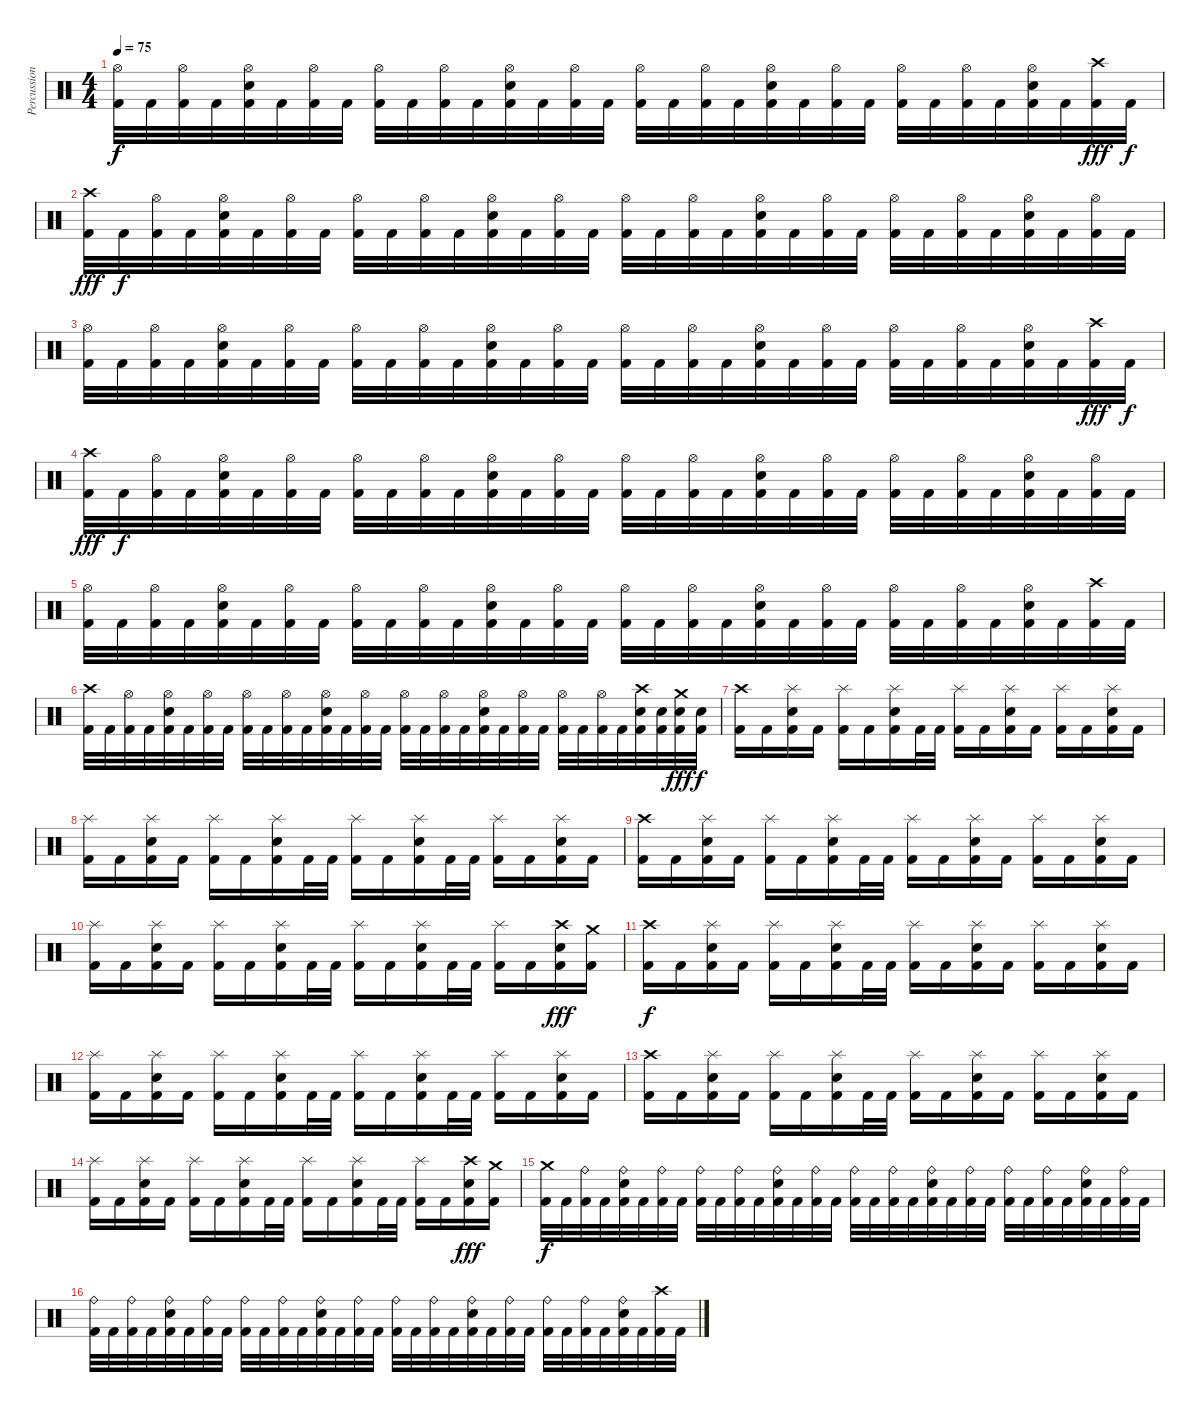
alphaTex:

\track ("Percussion" "Percussion") {instrument percussion}
\staff {score}
\articulation defaults
\ts (4 4)
\tempo 75
\clef neutral
\ks c
("Hi-Hat (open)" "Kick (hit) 2").32{dy f} "Kick (hit) 2".32 ("Hi-Hat (open)" "Kick (hit) 2").32 "Kick (hit) 2".32 ("Hi-Hat (open)" "Electric Snare (hit)" "Kick (hit) 2").32 "Kick (hit) 2".32 ("Hi-Hat (open)" "Kick (hit) 2").32 "Kick (hit) 2".32 ("Hi-Hat (open)" "Kick (hit) 2").32 "Kick (hit) 2".32 ("Hi-Hat (open)" "Kick (hit) 2").32 "Kick (hit) 2".32 ("Hi-Hat (open)" "Electric Snare (hit)" "Kick (hit) 2").32 "Kick (hit) 2".32 ("Hi-Hat (open)" "Kick (hit) 2").32 "Kick (hit) 2".32 ("Hi-Hat (open)" "Kick (hit) 2").32 "Kick (hit) 2".32 ("Hi-Hat (open)" "Kick (hit) 2").32 "Kick (hit) 2".32 ("Hi-Hat (open)" "Electric Snare (hit)" "Kick (hit) 2").32 "Kick (hit) 2".32 ("Hi-Hat (open)" "Kick (hit) 2").32 "Kick (hit) 2".32 ("Hi-Hat (open)" "Kick (hit) 2").32 "Kick (hit) 2".32 ("Hi-Hat (open)" "Kick (hit) 2").32 "Kick (hit) 2".32 ("Hi-Hat (open)" "Electric Snare (hit)" "Kick (hit) 2").32 "Kick (hit) 2".32 ("Crash high (hit)" "Kick (hit) 2").32{dy fff} "Kick (hit) 2".32{dy f} |
("Crash high (hit)" "Kick (hit) 2").32{dy fff} "Kick (hit) 2".32{dy f} ("Hi-Hat (open)" "Kick (hit) 2").32 "Kick (hit) 2".32 ("Hi-Hat (open)" "Electric Snare (hit)" "Kick (hit) 2").32 "Kick (hit) 2".32 ("Hi-Hat (open)" "Kick (hit) 2").32 "Kick (hit) 2".32 ("Hi-Hat (open)" "Kick (hit) 2").32 "Kick (hit) 2".32 ("Hi-Hat (open)" "Kick (hit) 2").32 "Kick (hit) 2".32 ("Hi-Hat (open)" "Electric Snare (hit)" "Kick (hit) 2").32 "Kick (hit) 2".32 ("Hi-Hat (open)" "Kick (hit) 2").32 "Kick (hit) 2".32 ("Hi-Hat (open)" "Kick (hit) 2").32 "Kick (hit) 2".32 ("Hi-Hat (open)" "Kick (hit) 2").32 "Kick (hit) 2".32 ("Hi-Hat (open)" "Electric Snare (hit)" "Kick (hit) 2").32 "Kick (hit) 2".32 ("Hi-Hat (open)" "Kick (hit) 2").32 "Kick (hit) 2".32 ("Hi-Hat (open)" "Kick (hit) 2").32 "Kick (hit) 2".32 ("Hi-Hat (open)" "Kick (hit) 2").32 "Kick (hit) 2".32 ("Hi-Hat (open)" "Electric Snare (hit)" "Kick (hit) 2").32 "Kick (hit) 2".32 ("Hi-Hat (open)" "Kick (hit) 2").32 "Kick (hit) 2".32 |
("Hi-Hat (open)" "Kick (hit) 2").32 "Kick (hit) 2".32 ("Hi-Hat (open)" "Kick (hit) 2").32 "Kick (hit) 2".32 ("Hi-Hat (open)" "Electric Snare (hit)" "Kick (hit) 2").32 "Kick (hit) 2".32 ("Hi-Hat (open)" "Kick (hit) 2").32 "Kick (hit) 2".32 ("Hi-Hat (open)" "Kick (hit) 2").32 "Kick (hit) 2".32 ("Hi-Hat (open)" "Kick (hit) 2").32 "Kick (hit) 2".32 ("Hi-Hat (open)" "Electric Snare (hit)" "Kick (hit) 2").32 "Kick (hit) 2".32 ("Hi-Hat (open)" "Kick (hit) 2").32 "Kick (hit) 2".32 ("Hi-Hat (open)" "Kick (hit) 2").32 "Kick (hit) 2".32 ("Hi-Hat (open)" "Kick (hit) 2").32 "Kick (hit) 2".32 ("Hi-Hat (open)" "Electric Snare (hit)" "Kick (hit) 2").32 "Kick (hit) 2".32 ("Hi-Hat (open)" "Kick (hit) 2").32 "Kick (hit) 2".32 ("Hi-Hat (open)" "Kick (hit) 2").32 "Kick (hit) 2".32 ("Hi-Hat (open)" "Kick (hit) 2").32 "Kick (hit) 2".32 ("Hi-Hat (open)" "Electric Snare (hit)" "Kick (hit) 2").32 "Kick (hit) 2".32 ("Crash high (hit)" "Kick (hit) 2").32{dy fff} "Kick (hit) 2".32{dy f} |
("Crash high (hit)" "Kick (hit) 2").32{dy fff} "Kick (hit) 2".32{dy f} ("Hi-Hat (open)" "Kick (hit) 2").32 "Kick (hit) 2".32 ("Hi-Hat (open)" "Electric Snare (hit)" "Kick (hit) 2").32 "Kick (hit) 2".32 ("Hi-Hat (open)" "Kick (hit) 2").32 "Kick (hit) 2".32 ("Hi-Hat (open)" "Kick (hit) 2").32 "Kick (hit) 2".32 ("Hi-Hat (open)" "Kick (hit) 2").32 "Kick (hit) 2".32 ("Hi-Hat (open)" "Electric Snare (hit)" "Kick (hit) 2").32 "Kick (hit) 2".32 ("Hi-Hat (open)" "Kick (hit) 2").32 "Kick (hit) 2".32 ("Hi-Hat (open)" "Kick (hit) 2").32 "Kick (hit) 2".32 ("Hi-Hat (open)" "Kick (hit) 2").32 "Kick (hit) 2".32 ("Hi-Hat (open)" "Electric Snare (hit)" "Kick (hit) 2").32 "Kick (hit) 2".32 ("Hi-Hat (open)" "Kick (hit) 2").32 "Kick (hit) 2".32 ("Hi-Hat (open)" "Kick (hit) 2").32 "Kick (hit) 2".32 ("Hi-Hat (open)" "Kick (hit) 2").32 "Kick (hit) 2".32 ("Hi-Hat (open)" "Electric Snare (hit)" "Kick (hit) 2").32 "Kick (hit) 2".32 ("Hi-Hat (open)" "Kick (hit) 2").32 "Kick (hit) 2".32 |
("Hi-Hat (open)" "Kick (hit) 2").32 "Kick (hit) 2".32 ("Hi-Hat (open)" "Kick (hit) 2").32 "Kick (hit) 2".32 ("Hi-Hat (open)" "Electric Snare (hit)" "Kick (hit) 2").32 "Kick (hit) 2".32 ("Hi-Hat (open)" "Kick (hit) 2").32 "Kick (hit) 2".32 ("Hi-Hat (open)" "Kick (hit) 2").32 "Kick (hit) 2".32 ("Hi-Hat (open)" "Kick (hit) 2").32 "Kick (hit) 2".32 ("Hi-Hat (open)" "Electric Snare (hit)" "Kick (hit) 2").32 "Kick (hit) 2".32 ("Hi-Hat (open)" "Kick (hit) 2").32 "Kick (hit) 2".32 ("Hi-Hat (open)" "Kick (hit) 2").32 "Kick (hit) 2".32 ("Hi-Hat (open)" "Kick (hit) 2").32 "Kick (hit) 2".32 ("Hi-Hat (open)" "Electric Snare (hit)" "Kick (hit) 2").32 "Kick (hit) 2".32 ("Hi-Hat (open)" "Kick (hit) 2").32 "Kick (hit) 2".32 ("Hi-Hat (open)" "Kick (hit) 2").32 "Kick (hit) 2".32 ("Hi-Hat (open)" "Kick (hit) 2").32 "Kick (hit) 2".32 ("Hi-Hat (open)" "Electric Snare (hit)" "Kick (hit) 2").32 "Kick (hit) 2".32 ("Crash high (hit)" "Kick (hit) 2").32 "Kick (hit) 2".32 |
("Crash high (hit)" "Kick (hit) 2").32 "Kick (hit) 2".32 ("Hi-Hat (open)" "Kick (hit) 2").32 "Kick (hit) 2".32 ("Hi-Hat (open)" "Electric Snare (hit)" "Kick (hit) 2").32 "Kick (hit) 2".32 ("Hi-Hat (open)" "Kick (hit) 2").32 "Kick (hit) 2".32 ("Hi-Hat (open)" "Kick (hit) 2").32 "Kick (hit) 2".32 ("Hi-Hat (open)" "Kick (hit) 2").32 "Kick (hit) 2".32 ("Hi-Hat (open)" "Electric Snare (hit)" "Kick (hit) 2").32 "Kick (hit) 2".32 ("Hi-Hat (open)" "Kick (hit) 2").32 "Kick (hit) 2".32 ("Hi-Hat (open)" "Kick (hit) 2").32 "Kick (hit) 2".32 ("Hi-Hat (open)" "Kick (hit) 2").32 "Kick (hit) 2".32 ("Hi-Hat (open)" "Electric Snare (hit)" "Kick (hit) 2").32 "Kick (hit) 2".32 ("Hi-Hat (open)" "Kick (hit) 2").32 "Kick (hit) 2".32 ("Hi-Hat (open)" "Kick (hit) 2").32 "Kick (hit) 2".32 ("Hi-Hat (open)" "Kick (hit) 2").32 "Kick (hit) 2".32 ("Crash high (hit)" "Electric Snare (hit)" "Kick (hit) 2").32 ("Electric Snare (hit)" "Kick (hit) 2").32 ("Crash medium (hit)" "Electric Snare (hit)" "Kick (hit) 2").32{dy fff} ("Electric Snare (hit)" "Kick (hit) 2").32{dy f} |
("Crash high (hit)" "Kick (hit) 2").16 "Kick (hit) 2".16 ("Splash (hit)" "Electric Snare (hit)" "Kick (hit) 2").16 "Kick (hit) 2".16 ("Splash (hit)" "Kick (hit) 2").16 "Kick (hit) 2".16 ("Splash (hit)" "Electric Snare (hit)" "Kick (hit) 2").16 "Kick (hit) 2".32 "Kick (hit) 2".32 ("Splash (hit)" "Kick (hit) 2").16 "Kick (hit) 2".16 ("Splash (hit)" "Electric Snare (hit)" "Kick (hit) 2").16 "Kick (hit) 2".16 ("Splash (hit)" "Kick (hit) 2").16 "Kick (hit) 2".16 ("Splash (hit)" "Electric Snare (hit)" "Kick (hit) 2").16 "Kick (hit) 2".16 |
("Splash (hit)" "Kick (hit) 2").16 "Kick (hit) 2".16 ("Splash (hit)" "Electric Snare (hit)" "Kick (hit) 2").16 "Kick (hit) 2".16 ("Splash (hit)" "Kick (hit) 2").16 "Kick (hit) 2".16 ("Splash (hit)" "Electric Snare (hit)" "Kick (hit) 2").16 "Kick (hit) 2".32 "Kick (hit) 2".32 ("Splash (hit)" "Kick (hit) 2").16 "Kick (hit) 2".16 ("Splash (hit)" "Electric Snare (hit)" "Kick (hit) 2").16 "Kick (hit) 2".32 "Kick (hit) 2".32 ("Splash (hit)" "Kick (hit) 2").16 "Kick (hit) 2".16 ("Splash (hit)" "Electric Snare (hit)" "Kick (hit) 2").16 "Kick (hit) 2".16 |
("Crash high (hit)" "Kick (hit) 2").16 "Kick (hit) 2".16 ("Splash (hit)" "Electric Snare (hit)" "Kick (hit) 2").16 "Kick (hit) 2".16 ("Splash (hit)" "Kick (hit) 2").16 "Kick (hit) 2".16 ("Splash (hit)" "Electric Snare (hit)" "Kick (hit) 2").16 "Kick (hit) 2".32 "Kick (hit) 2".32 ("Splash (hit)" "Kick (hit) 2").16 "Kick (hit) 2".16 ("Splash (hit)" "Electric Snare (hit)" "Kick (hit) 2").16 "Kick (hit) 2".16 ("Splash (hit)" "Kick (hit) 2").16 "Kick (hit) 2".16 ("Splash (hit)" "Electric Snare (hit)" "Kick (hit) 2").16 "Kick (hit) 2".16 |
("Splash (hit)" "Kick (hit) 2").16 "Kick (hit) 2".16 ("Splash (hit)" "Electric Snare (hit)" "Kick (hit) 2").16 "Kick (hit) 2".16 ("Splash (hit)" "Kick (hit) 2").16 "Kick (hit) 2".16 ("Splash (hit)" "Electric Snare (hit)" "Kick (hit) 2").16 "Kick (hit) 2".32 "Kick (hit) 2".32 ("Splash (hit)" "Kick (hit) 2").16 "Kick (hit) 2".16 ("Splash (hit)" "Electric Snare (hit)" "Kick (hit) 2").16 "Kick (hit) 2".32 "Kick (hit) 2".32 ("Splash (hit)" "Kick (hit) 2").16 "Kick (hit) 2".16 ("Crash high (hit)" "Electric Snare (hit)" "Kick (hit) 2").16{dy fff} ("Crash medium (hit)" "Kick (hit) 2").16 |
("Crash high (hit)" "Kick (hit) 2").16{dy f} "Kick (hit) 2".16 ("Splash (hit)" "Electric Snare (hit)" "Kick (hit) 2").16 "Kick (hit) 2".16 ("Splash (hit)" "Kick (hit) 2").16 "Kick (hit) 2".16 ("Splash (hit)" "Electric Snare (hit)" "Kick (hit) 2").16 "Kick (hit) 2".32 "Kick (hit) 2".32 ("Splash (hit)" "Kick (hit) 2").16 "Kick (hit) 2".16 ("Splash (hit)" "Electric Snare (hit)" "Kick (hit) 2").16 "Kick (hit) 2".16 ("Splash (hit)" "Kick (hit) 2").16 "Kick (hit) 2".16 ("Splash (hit)" "Electric Snare (hit)" "Kick (hit) 2").16 "Kick (hit) 2".16 |
("Splash (hit)" "Kick (hit) 2").16 "Kick (hit) 2".16 ("Splash (hit)" "Electric Snare (hit)" "Kick (hit) 2").16 "Kick (hit) 2".16 ("Splash (hit)" "Kick (hit) 2").16 "Kick (hit) 2".16 ("Splash (hit)" "Electric Snare (hit)" "Kick (hit) 2").16 "Kick (hit) 2".32 "Kick (hit) 2".32 ("Splash (hit)" "Kick (hit) 2").16 "Kick (hit) 2".16 ("Splash (hit)" "Electric Snare (hit)" "Kick (hit) 2").16 "Kick (hit) 2".32 "Kick (hit) 2".32 ("Splash (hit)" "Kick (hit) 2").16 "Kick (hit) 2".16 ("Splash (hit)" "Electric Snare (hit)" "Kick (hit) 2").16 "Kick (hit) 2".16 |
("Crash high (hit)" "Kick (hit) 2").16 "Kick (hit) 2".16 ("Splash (hit)" "Electric Snare (hit)" "Kick (hit) 2").16 "Kick (hit) 2".16 ("Splash (hit)" "Kick (hit) 2").16 "Kick (hit) 2".16 ("Splash (hit)" "Electric Snare (hit)" "Kick (hit) 2").16 "Kick (hit) 2".32 "Kick (hit) 2".32 ("Splash (hit)" "Kick (hit) 2").16 "Kick (hit) 2".16 ("Splash (hit)" "Electric Snare (hit)" "Kick (hit) 2").16 "Kick (hit) 2".16 ("Splash (hit)" "Kick (hit) 2").16 "Kick (hit) 2".16 ("Splash (hit)" "Electric Snare (hit)" "Kick (hit) 2").16 "Kick (hit) 2".16 |
("Splash (hit)" "Kick (hit) 2").16 "Kick (hit) 2".16 ("Splash (hit)" "Electric Snare (hit)" "Kick (hit) 2").16 "Kick (hit) 2".16 ("Splash (hit)" "Kick (hit) 2").16 "Kick (hit) 2".16 ("Splash (hit)" "Electric Snare (hit)" "Kick (hit) 2").16 "Kick (hit) 2".32 "Kick (hit) 2".32 ("Splash (hit)" "Kick (hit) 2").16 "Kick (hit) 2".16 ("Splash (hit)" "Electric Snare (hit)" "Kick (hit) 2").16 "Kick (hit) 2".32 "Kick (hit) 2".32 ("Splash (hit)" "Kick (hit) 2").16 "Kick (hit) 2".16 ("Crash high (hit)" "Electric Snare (hit)" "Kick (hit) 2").16{dy fff} ("Crash medium (hit)" "Kick (hit) 2").16 |
("Crash medium (hit)" "Kick (hit) 2").32{dy f} "Kick (hit) 2".32 ("Ride (bell)" "Kick (hit) 2").32 "Kick (hit) 2".32 ("Ride (bell)" "Electric Snare (hit)" "Kick (hit) 2").32 "Kick (hit) 2".32 ("Ride (bell)" "Kick (hit) 2").32 "Kick (hit) 2".32 ("Ride (bell)" "Kick (hit) 2").32 "Kick (hit) 2".32 ("Ride (bell)" "Kick (hit) 2").32 "Kick (hit) 2".32 ("Ride (bell)" "Electric Snare (hit)" "Kick (hit) 2").32 "Kick (hit) 2".32 ("Ride (bell)" "Kick (hit) 2").32 "Kick (hit) 2".32 ("Ride (bell)" "Kick (hit) 2").32 "Kick (hit) 2".32 ("Ride (bell)" "Kick (hit) 2").32 "Kick (hit) 2".32 ("Ride (bell)" "Electric Snare (hit)" "Kick (hit) 2").32 "Kick (hit) 2".32 ("Ride (bell)" "Kick (hit) 2").32 "Kick (hit) 2".32 ("Ride (bell)" "Kick (hit) 2").32 "Kick (hit) 2".32 ("Ride (bell)" "Kick (hit) 2").32 "Kick (hit) 2".32 ("Ride (bell)" "Electric Snare (hit)" "Kick (hit) 2").32 "Kick (hit) 2".32 ("Ride (bell)" "Kick (hit) 2").32 "Kick (hit) 2".32 |
("Ride (bell)" "Kick (hit) 2").32 "Kick (hit) 2".32 ("Ride (bell)" "Kick (hit) 2").32 "Kick (hit) 2".32 ("Ride (bell)" "Electric Snare (hit)" "Kick (hit) 2").32 "Kick (hit) 2".32 ("Ride (bell)" "Kick (hit) 2").32 "Kick (hit) 2".32 ("Ride (bell)" "Kick (hit) 2").32 "Kick (hit) 2".32 ("Ride (bell)" "Kick (hit) 2").32 "Kick (hit) 2".32 ("Ride (bell)" "Electric Snare (hit)" "Kick (hit) 2").32 "Kick (hit) 2".32 ("Ride (bell)" "Kick (hit) 2").32 "Kick (hit) 2".32 ("Ride (bell)" "Kick (hit) 2").32 "Kick (hit) 2".32 ("Ride (bell)" "Kick (hit) 2").32 "Kick (hit) 2".32 ("Ride (bell)" "Electric Snare (hit)" "Kick (hit) 2").32 "Kick (hit) 2".32 ("Ride (bell)" "Kick (hit) 2").32 "Kick (hit) 2".32 ("Ride (bell)" "Kick (hit) 2").32 "Kick (hit) 2".32 ("Ride (bell)" "Kick (hit) 2").32 "Kick (hit) 2".32 ("Ride (bell)" "Electric Snare (hit)" "Kick (hit) 2").32 "Kick (hit) 2".32 ("Crash high (hit)" "Kick (hit) 2").32 "Kick (hit) 2".32
